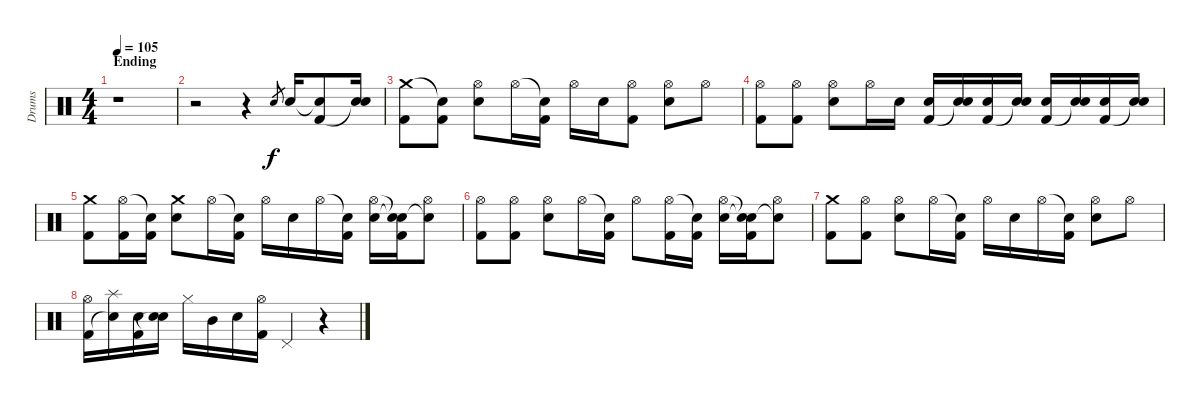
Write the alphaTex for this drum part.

\track ("Drums" "Drums") {instrument percussion}
\staff {score}
\articulation defaults
\ts (4 4)
\section ("" "Ending")
\tempo 105
\clef neutral
\ks aminor
r.1{dy f} |
r.2 r.4 "Electric Snare (hit)".8{gr} "Electric Snare (hit)".16 ("Snare (hit)"{t} "Kick (hit) 2").8 ("Electric Snare (hit)" "Snare (hit)"{t}).16 |
("Crash medium (hit)" "Kick (hit) 2").8 ("Snare (hit)"{t} "Kick (hit) 2").8 ("Hi-Hat (open)" "Electric Snare (hit)").8 "Hi-Hat (open)".16 ("Snare (hit)"{t} "Kick (hit) 2").16 "Hi-Hat (open)".16 "Electric Snare (hit)".16 ("Hi-Hat (open)" "Kick (hit) 2").8 ("Hi-Hat (open)" "Electric Snare (hit)").8 "Hi-Hat (open)".8 |
("Hi-Hat (open)" "Kick (hit) 2").8 ("Hi-Hat (open)" "Kick (hit) 2").8 ("Hi-Hat (open)" "Electric Snare (hit)").8 "Hi-Hat (open)".16 "Electric Snare (hit)".16 ("Electric Snare (hit)" "Kick (hit) 2").16 ("Electric Snare (hit)" "Snare (hit)"{t}).16 ("Electric Snare (hit)" "Kick (hit) 2").16 ("Electric Snare (hit)" "Snare (hit)"{t}).16 ("Electric Snare (hit)" "Kick (hit) 2").16 ("Electric Snare (hit)" "Snare (hit)"{t}).16 ("Electric Snare (hit)" "Kick (hit) 2").16 ("Electric Snare (hit)" "Snare (hit)"{t}).16 |
("Crash medium (hit)" "Kick (hit) 2").8 ("Hi-Hat (open)" "Kick (hit) 2").16 ("Snare (hit)"{t} "Kick (hit) 2").16 ("Crash medium (hit)" "Electric Snare (hit)").8 "Hi-Hat (open)".16 ("Snare (hit)"{t} "Kick (hit) 2").16 "Hi-Hat (open)".16 "Electric Snare (hit)".16 "Hi-Hat (open)".16 ("Snare (hit)"{t} "Kick (hit) 2").16 ("Hi-Hat (open)" "Electric Snare (hit)").16 ("Snare (hit)"{t} "Snare (hit)"{t} "Kick (hit) 2").16 ("Hi-Hat (open)" "Snare (hit)"{t}).8 |
("Hi-Hat (open)" "Kick (hit) 2").8 ("Hi-Hat (open)" "Kick (hit) 2").8 ("Hi-Hat (open)" "Electric Snare (hit)").8 "Hi-Hat (open)".16 ("Snare (hit)"{t} "Kick (hit) 2").16 "Hi-Hat (open)".8 ("Hi-Hat (open)" "Kick (hit) 2").16 ("Snare (hit)"{t} "Kick (hit) 2").16 ("Hi-Hat (open)" "Electric Snare (hit)").16 ("Snare (hit)"{t} "Snare (hit)"{t} "Kick (hit) 2").16 ("Hi-Hat (open)" "Snare (hit)"{t}).8 |
("Crash medium (hit)" "Kick (hit) 2").8 ("Hi-Hat (open)" "Kick (hit) 2").8 ("Hi-Hat (open)" "Electric Snare (hit)").8 "Hi-Hat (open)".16 ("Snare (hit)"{t} "Kick (hit) 2").16 "Hi-Hat (open)".16 "Electric Snare (hit)".16 "Hi-Hat (open)".16 ("Snare (hit)"{t} "Kick (hit) 2").16 ("Hi-Hat (open)" "Electric Snare (hit)").8 "Hi-Hat (open)".8 |
("Hi-Hat (open)" "Kick (hit) 2").16 ("Splash (hit)" "Snare (hit)"{t}).16 ("Electric Snare (hit)" "Kick (hit) 2").16 ("Electric Snare (hit)" "Snare (hit)"{t}).16 "Hi-Hat (closed)".16 "Mid Tom (hit)".16 "Electric Snare (hit)".16 ("Hi-Hat (open)" "Kick (hit) 2").16 "Pedal Hi-Hat (hit)".4 r.4
